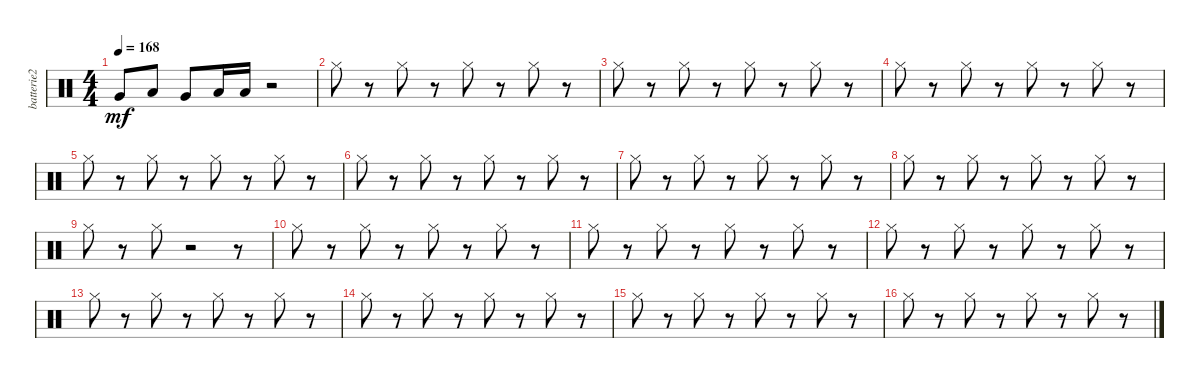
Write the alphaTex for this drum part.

\track ("batterie2" "batterie2") {instrument percussion}
\staff {score}
\articulation defaults
\ts (4 4)
\tempo 168
\clef neutral
\ks c "Very Low Tom (hit)".8{dy mf} "Low Tom (hit)".8 "Very Low Tom (hit)".8 "Low Tom (hit)".16 "Low Tom (hit)".16
r.2 |
"Hi-Hat (closed)".8 r.8 "Hi-Hat (closed)".8 r.8 "Hi-Hat (closed)".8 r.8 "Hi-Hat (closed)".8 r.8 |
"Hi-Hat (closed)".8 r.8 "Hi-Hat (closed)".8 r.8 "Hi-Hat (closed)".8 r.8 "Hi-Hat (closed)".8 r.8 |
"Hi-Hat (closed)".8 r.8 "Hi-Hat (closed)".8 r.8 "Hi-Hat (closed)".8 r.8 "Hi-Hat (closed)".8 r.8 |
"Hi-Hat (closed)".8 r.8 "Hi-Hat (closed)".8 r.8 "Hi-Hat (closed)".8 r.8 "Hi-Hat (closed)".8 r.8 |
"Hi-Hat (closed)".8 r.8 "Hi-Hat (closed)".8 r.8 "Hi-Hat (closed)".8 r.8 "Hi-Hat (closed)".8 r.8 |
"Hi-Hat (closed)".8 r.8 "Hi-Hat (closed)".8 r.8 "Hi-Hat (closed)".8 r.8 "Hi-Hat (closed)".8 r.8 |
"Hi-Hat (closed)".8 r.8 "Hi-Hat (closed)".8 r.8 "Hi-Hat (closed)".8 r.8 "Hi-Hat (closed)".8 r.8 |
"Hi-Hat (closed)".8 r.8 "Hi-Hat (closed)".8 r.2 r.8 |
"Hi-Hat (closed)".8 r.8 "Hi-Hat (closed)".8 r.8 "Hi-Hat (closed)".8 r.8 "Hi-Hat (closed)".8 r.8 |
"Hi-Hat (closed)".8 r.8 "Hi-Hat (closed)".8 r.8 "Hi-Hat (closed)".8 r.8 "Hi-Hat (closed)".8 r.8 |
"Hi-Hat (closed)".8 r.8 "Hi-Hat (closed)".8 r.8 "Hi-Hat (closed)".8 r.8 "Hi-Hat (closed)".8 r.8 |
"Hi-Hat (closed)".8 r.8 "Hi-Hat (closed)".8 r.8 "Hi-Hat (closed)".8 r.8 "Hi-Hat (closed)".8 r.8 |
"Hi-Hat (closed)".8 r.8 "Hi-Hat (closed)".8 r.8 "Hi-Hat (closed)".8 r.8 "Hi-Hat (closed)".8 r.8 |
"Hi-Hat (closed)".8 r.8 "Hi-Hat (closed)".8 r.8 "Hi-Hat (closed)".8 r.8 "Hi-Hat (closed)".8 r.8 |
"Hi-Hat (closed)".8 r.8 "Hi-Hat (closed)".8 r.8 "Hi-Hat (closed)".8 r.8 "Hi-Hat (closed)".8 r.8
